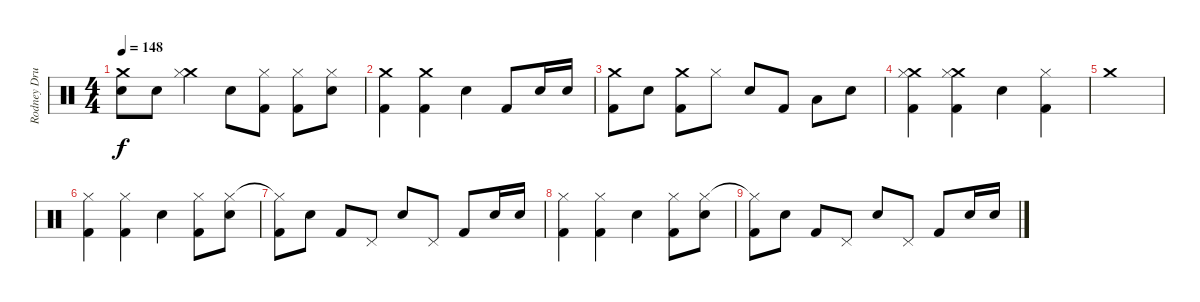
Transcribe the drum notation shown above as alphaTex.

\track ("Rodney Drums" "Rodney Dru") {instrument percussion}
\staff {score}
\articulation defaults
\ts (4 4)
\tempo 148
\clef neutral
\ks c
("Crash medium (hit)" "Electric Snare (hit)").8{dy f} "Electric Snare (hit)".8 ("Crash medium (hit)" "Hi-Hat (closed)").4 "Electric Snare (hit)".8 ("Hi-Hat (closed)" "Kick (hit) 2").8 ("Hi-Hat (closed)" "Kick (hit) 2").8 ("Hi-Hat (closed)" "Electric Snare (hit)").8 |
("Crash medium (hit)" "Kick (hit) 2").4 ("Crash medium (hit)" "Kick (hit) 2").4 "Electric Snare (hit)".4 "Kick (hit) 2".8 "Electric Snare (hit)".16 "Electric Snare (hit)".16 |
("Crash medium (hit)" "Kick (hit) 2").8 "Electric Snare (hit)".8 ("Crash medium (hit)" "Kick (hit) 2").8 "Hi-Hat (closed)".8 "Electric Snare (hit)".8 "Kick (hit) 2".8 "Low Tom (hit)".8 "Electric Snare (hit)".8 |
("Crash medium (hit)" "Hi-Hat (closed)" "Kick (hit) 2").4 ("Crash medium (hit)" "Hi-Hat (closed)" "Kick (hit) 2").4 "Electric Snare (hit)".4 ("Hi-Hat (closed)" "Kick (hit) 2").4 |
"Crash medium (hit)".1 |
("Hi-Hat (closed)" "Kick (hit) 2").4 ("Hi-Hat (closed)" "Kick (hit) 2").4 "Electric Snare (hit)".4 ("Hi-Hat (closed)" "Kick (hit) 2").8 ("Hi-Hat (closed)" "Electric Snare (hit)").8 |
("Hi-Hat (closed)"{t} "Kick (hit) 2").8 "Electric Snare (hit)".8 "Kick (hit) 2".8 "Pedal Hi-Hat (hit)".8 "Electric Snare (hit)".8 "Pedal Hi-Hat (hit)".8 "Kick (hit) 2".8 "Electric Snare (hit)".16 "Electric Snare (hit)".16 |
("Hi-Hat (closed)" "Kick (hit) 2").4 ("Hi-Hat (closed)" "Kick (hit) 2").4 "Electric Snare (hit)".4 ("Hi-Hat (closed)" "Kick (hit) 2").8 ("Hi-Hat (closed)" "Electric Snare (hit)").8 |
("Hi-Hat (closed)"{t} "Kick (hit) 2").8 "Electric Snare (hit)".8 "Kick (hit) 2".8 "Pedal Hi-Hat (hit)".8 "Electric Snare (hit)".8 "Pedal Hi-Hat (hit)".8 "Kick (hit) 2".8 "Electric Snare (hit)".16 "Electric Snare (hit)".16
